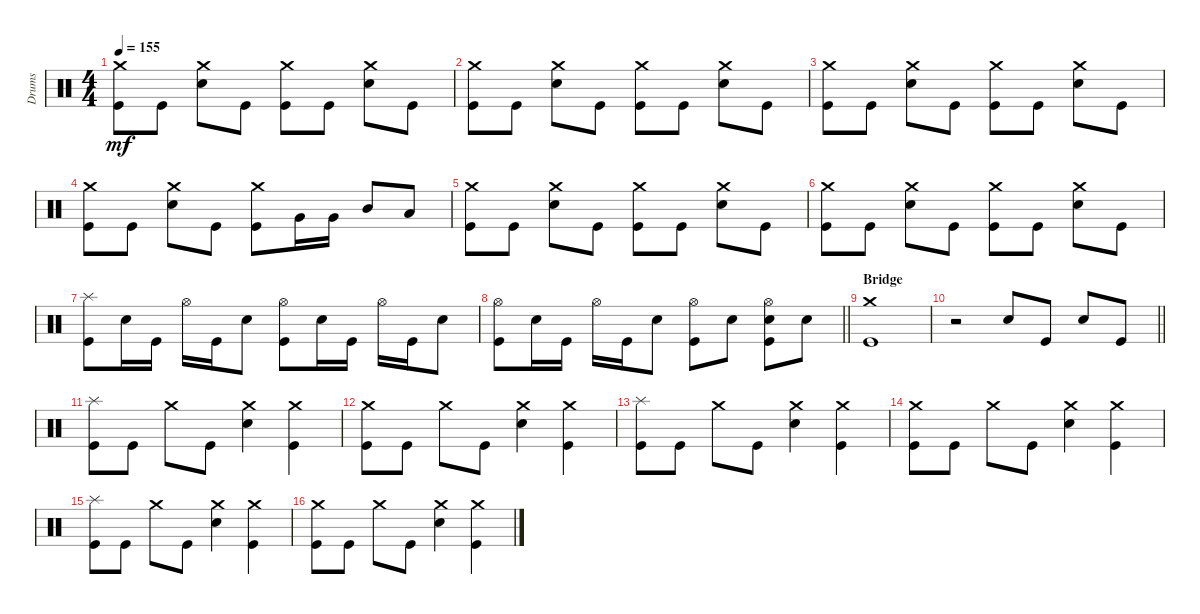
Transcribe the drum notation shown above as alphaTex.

\track ("Drums" "Drums") {instrument percussion}
\staff {score}
\articulation defaults
\ts (4 4)
\tempo 155
\clef neutral
\ks c
("Kick (hit)" "Crash medium (hit)").8{dy mf} "Kick (hit)".8 ("Snare (hit) 2" "Crash medium (hit)").8 "Kick (hit)".8 ("Kick (hit)" "Crash medium (hit)").8 "Kick (hit)".8 ("Snare (hit) 2" "Crash medium (hit)").8 "Kick (hit)".8 |
("Kick (hit)" "Crash medium (hit)").8 "Kick (hit)".8 ("Snare (hit) 2" "Crash medium (hit)").8 "Kick (hit)".8 ("Kick (hit)" "Crash medium (hit)").8 "Kick (hit)".8 ("Snare (hit) 2" "Crash medium (hit)").8 "Kick (hit)".8 |
("Kick (hit)" "Crash medium (hit)").8 "Kick (hit)".8 ("Snare (hit) 2" "Crash medium (hit)").8 "Kick (hit)".8 ("Kick (hit)" "Crash medium (hit)").8 "Kick (hit)".8 ("Snare (hit) 2" "Crash medium (hit)").8 "Kick (hit)".8 |
("Kick (hit)" "Crash medium (hit)").8 "Kick (hit)".8 ("Snare (hit) 2" "Crash medium (hit)").8 "Kick (hit)".8 ("Kick (hit)" "Crash medium (hit)").8 "Very Low Tom (hit)".16 "Very Low Tom (hit)".16 "Mid Tom (hit)".8 "Low Tom (hit)".8 |
("Kick (hit)" "Crash medium (hit)").8 "Kick (hit)".8 ("Snare (hit) 2" "Crash medium (hit)").8 "Kick (hit)".8 ("Kick (hit)" "Crash medium (hit)").8 "Kick (hit)".8 ("Snare (hit) 2" "Crash medium (hit)").8 "Kick (hit)".8 |
("Kick (hit)" "Crash medium (hit)").8 "Kick (hit)".8 ("Snare (hit) 2" "Crash medium (hit)").8 "Kick (hit)".8 ("Kick (hit)" "Crash medium (hit)").8 "Kick (hit)".8 ("Snare (hit) 2" "Crash medium (hit)").8 "Kick (hit)".8 |
("Kick (hit)" "Splash (hit)").8 "Snare (hit) 2".16 "Kick (hit)".16 "Hi-Hat (open)".16 "Kick (hit)".16 "Snare (hit) 2".8 ("Kick (hit)" "Hi-Hat (open)").8 "Snare (hit) 2".16 "Kick (hit)".16 "Hi-Hat (open)".16 "Kick (hit)".16 "Snare (hit) 2".8 |
\barLineRight lightlight
("Kick (hit)" "Hi-Hat (open)").8 "Snare (hit) 2".16 "Kick (hit)".16 "Hi-Hat (open)".16 "Kick (hit)".16 "Snare (hit) 2".8 ("Kick (hit)" "Hi-Hat (open)").8 "Snare (hit) 2".8 ("Snare (hit) 2" "Kick (hit)" "Hi-Hat (open)").8 "Snare (hit) 2".8 |
\section ("" "Bridge")
("Kick (hit)" "Crash medium (hit)").1 |
\barLineRight lightlight
r.2 "Snare (hit) 2".8 "Kick (hit)".8 "Snare (hit) 2".8 "Kick (hit)".8 |
("Kick (hit)" "Splash (hit)").8 "Kick (hit)".8 "Crash medium (hit)".8 "Kick (hit)".8 ("Snare (hit) 2" "Crash medium (hit)").4 ("Kick (hit)" "Crash medium (hit)").4 |
("Kick (hit)" "Crash medium (hit)").8 "Kick (hit)".8 "Crash medium (hit)".8 "Kick (hit)".8 ("Snare (hit) 2" "Crash medium (hit)").4 ("Kick (hit)" "Crash medium (hit)").4 |
("Kick (hit)" "Splash (hit)").8 "Kick (hit)".8 "Crash medium (hit)".8 "Kick (hit)".8 ("Snare (hit) 2" "Crash medium (hit)").4 ("Kick (hit)" "Crash medium (hit)").4 |
("Kick (hit)" "Crash medium (hit)").8 "Kick (hit)".8 "Crash medium (hit)".8 "Kick (hit)".8 ("Snare (hit) 2" "Crash medium (hit)").4 ("Kick (hit)" "Crash medium (hit)").4 |
("Kick (hit)" "Splash (hit)").8 "Kick (hit)".8 "Crash medium (hit)".8 "Kick (hit)".8 ("Snare (hit) 2" "Crash medium (hit)").4 ("Kick (hit)" "Crash medium (hit)").4 |
("Kick (hit)" "Crash medium (hit)").8 "Kick (hit)".8 "Crash medium (hit)".8 "Kick (hit)".8 ("Snare (hit) 2" "Crash medium (hit)").4 ("Kick (hit)" "Crash medium (hit)").4
